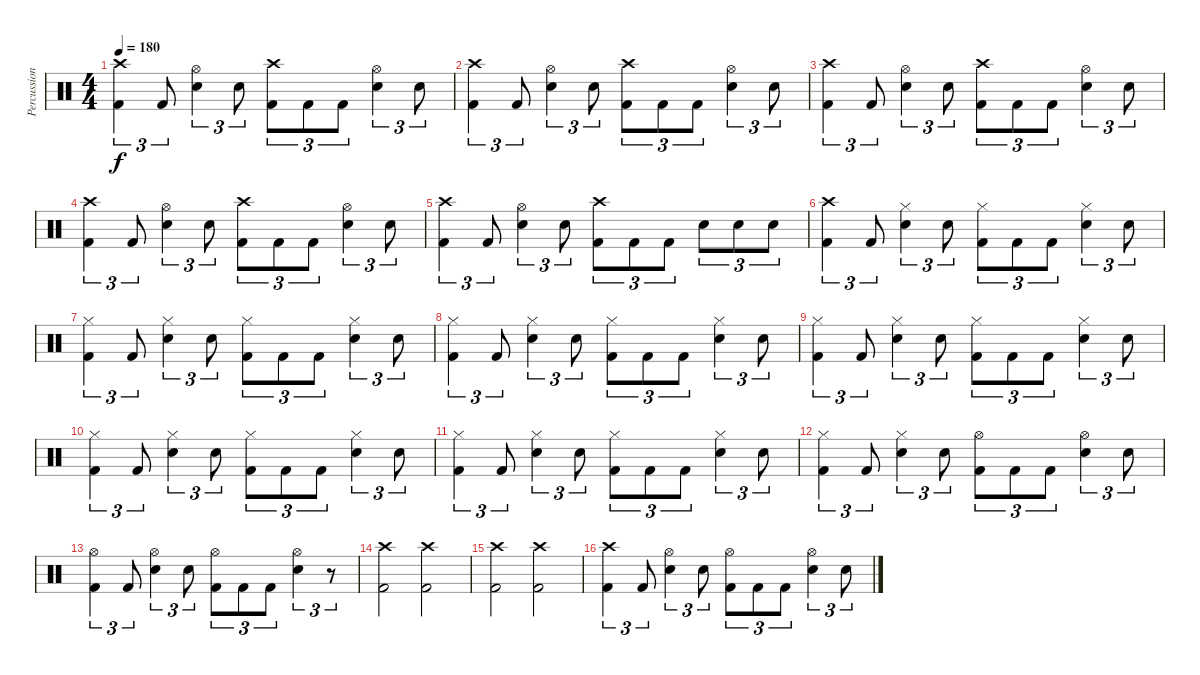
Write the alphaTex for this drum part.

\track ("Percussion" "Percussion") {instrument percussion}
\staff {score}
\articulation defaults
\ts (4 4)
\tempo 180
\clef neutral
\ks c
("Crash high (hit)" "Kick (hit) 2").4{tu (3 2) dy f} "Kick (hit) 2".8{tu (3 2)} ("Hi-Hat (open)" "Electric Snare (hit)").4{tu (3 2)} "Electric Snare (hit)".8{tu (3 2)} ("Crash high (hit)" "Kick (hit) 2").8{tu (3 2)} "Kick (hit) 2".8{tu (3 2)} "Kick (hit) 2".8{tu (3 2)} ("Hi-Hat (open)" "Electric Snare (hit)").4{tu (3 2)} "Electric Snare (hit)".8{tu (3 2)} |
("Crash high (hit)" "Kick (hit) 2").4{tu (3 2)} "Kick (hit) 2".8{tu (3 2)} ("Hi-Hat (open)" "Electric Snare (hit)").4{tu (3 2)} "Electric Snare (hit)".8{tu (3 2)} ("Crash high (hit)" "Kick (hit) 2").8{tu (3 2)} "Kick (hit) 2".8{tu (3 2)} "Kick (hit) 2".8{tu (3 2)} ("Hi-Hat (open)" "Electric Snare (hit)").4{tu (3 2)} "Electric Snare (hit)".8{tu (3 2)} |
("Crash high (hit)" "Kick (hit) 2").4{tu (3 2)} "Kick (hit) 2".8{tu (3 2)} ("Hi-Hat (open)" "Electric Snare (hit)").4{tu (3 2)} "Electric Snare (hit)".8{tu (3 2)} ("Crash high (hit)" "Kick (hit) 2").8{tu (3 2)} "Kick (hit) 2".8{tu (3 2)} "Kick (hit) 2".8{tu (3 2)} ("Hi-Hat (open)" "Electric Snare (hit)").4{tu (3 2)} "Electric Snare (hit)".8{tu (3 2)} |
("Crash high (hit)" "Kick (hit) 2").4{tu (3 2)} "Kick (hit) 2".8{tu (3 2)} ("Hi-Hat (open)" "Electric Snare (hit)").4{tu (3 2)} "Electric Snare (hit)".8{tu (3 2)} ("Crash high (hit)" "Kick (hit) 2").8{tu (3 2)} "Kick (hit) 2".8{tu (3 2)} "Kick (hit) 2".8{tu (3 2)} ("Hi-Hat (open)" "Electric Snare (hit)").4{tu (3 2)} "Electric Snare (hit)".8{tu (3 2)} |
("Crash high (hit)" "Kick (hit) 2").4{tu (3 2)} "Kick (hit) 2".8{tu (3 2)} ("Hi-Hat (open)" "Electric Snare (hit)").4{tu (3 2)} "Electric Snare (hit)".8{tu (3 2)} ("Crash high (hit)" "Kick (hit) 2").8{tu (3 2)} "Kick (hit) 2".8{tu (3 2)} "Kick (hit) 2".8{tu (3 2)} "Electric Snare (hit)".8{tu (3 2)} "Electric Snare (hit)".8{tu (3 2)} "Electric Snare (hit)".8{tu (3 2)} |
("Crash high (hit)" "Kick (hit) 2").4{tu (3 2)} "Kick (hit) 2".8{tu (3 2)} ("Hi-Hat (closed)" "Electric Snare (hit)").4{tu (3 2)} "Electric Snare (hit)".8{tu (3 2)} ("Hi-Hat (closed)" "Kick (hit) 2").8{tu (3 2)} "Kick (hit) 2".8{tu (3 2)} "Kick (hit) 2".8{tu (3 2)} ("Hi-Hat (closed)" "Electric Snare (hit)").4{tu (3 2)} "Electric Snare (hit)".8{tu (3 2)} |
("Hi-Hat (closed)" "Kick (hit) 2").4{tu (3 2)} "Kick (hit) 2".8{tu (3 2)} ("Hi-Hat (closed)" "Electric Snare (hit)").4{tu (3 2)} "Electric Snare (hit)".8{tu (3 2)} ("Hi-Hat (closed)" "Kick (hit) 2").8{tu (3 2)} "Kick (hit) 2".8{tu (3 2)} "Kick (hit) 2".8{tu (3 2)} ("Hi-Hat (closed)" "Electric Snare (hit)").4{tu (3 2)} "Electric Snare (hit)".8{tu (3 2)} |
("Hi-Hat (closed)" "Kick (hit) 2").4{tu (3 2)} "Kick (hit) 2".8{tu (3 2)} ("Hi-Hat (closed)" "Electric Snare (hit)").4{tu (3 2)} "Electric Snare (hit)".8{tu (3 2)} ("Hi-Hat (closed)" "Kick (hit) 2").8{tu (3 2)} "Kick (hit) 2".8{tu (3 2)} "Kick (hit) 2".8{tu (3 2)} ("Hi-Hat (closed)" "Electric Snare (hit)").4{tu (3 2)} "Electric Snare (hit)".8{tu (3 2)} |
("Hi-Hat (closed)" "Kick (hit) 2").4{tu (3 2)} "Kick (hit) 2".8{tu (3 2)} ("Hi-Hat (closed)" "Electric Snare (hit)").4{tu (3 2)} "Electric Snare (hit)".8{tu (3 2)} ("Hi-Hat (closed)" "Kick (hit) 2").8{tu (3 2)} "Kick (hit) 2".8{tu (3 2)} "Kick (hit) 2".8{tu (3 2)} ("Hi-Hat (closed)" "Electric Snare (hit)").4{tu (3 2)} "Electric Snare (hit)".8{tu (3 2)} |
("Hi-Hat (closed)" "Kick (hit) 2").4{tu (3 2)} "Kick (hit) 2".8{tu (3 2)} ("Hi-Hat (closed)" "Electric Snare (hit)").4{tu (3 2)} "Electric Snare (hit)".8{tu (3 2)} ("Hi-Hat (closed)" "Kick (hit) 2").8{tu (3 2)} "Kick (hit) 2".8{tu (3 2)} "Kick (hit) 2".8{tu (3 2)} ("Hi-Hat (closed)" "Electric Snare (hit)").4{tu (3 2)} "Electric Snare (hit)".8{tu (3 2)} |
("Hi-Hat (closed)" "Kick (hit) 2").4{tu (3 2)} "Kick (hit) 2".8{tu (3 2)} ("Hi-Hat (closed)" "Electric Snare (hit)").4{tu (3 2)} "Electric Snare (hit)".8{tu (3 2)} ("Hi-Hat (closed)" "Kick (hit) 2").8{tu (3 2)} "Kick (hit) 2".8{tu (3 2)} "Kick (hit) 2".8{tu (3 2)} ("Hi-Hat (closed)" "Electric Snare (hit)").4{tu (3 2)} "Electric Snare (hit)".8{tu (3 2)} |
("Hi-Hat (closed)" "Kick (hit) 2").4{tu (3 2)} "Kick (hit) 2".8{tu (3 2)} ("Hi-Hat (closed)" "Electric Snare (hit)").4{tu (3 2)} "Electric Snare (hit)".8{tu (3 2)} ("Hi-Hat (open)" "Kick (hit) 2").8{tu (3 2)} "Kick (hit) 2".8{tu (3 2)} "Kick (hit) 2".8{tu (3 2)} ("Hi-Hat (open)" "Electric Snare (hit)").4{tu (3 2)} "Electric Snare (hit)".8{tu (3 2)} |
("Hi-Hat (open)" "Kick (hit) 2").4{tu (3 2)} "Kick (hit) 2".8{tu (3 2)} ("Hi-Hat (open)" "Electric Snare (hit)").4{tu (3 2)} "Electric Snare (hit)".8{tu (3 2)} ("Hi-Hat (open)" "Kick (hit) 2").8{tu (3 2)} "Kick (hit) 2".8{tu (3 2)} "Kick (hit) 2".8{tu (3 2)} ("Hi-Hat (open)" "Electric Snare (hit)").4{tu (3 2)} r.8{tu (3 2)} |
("Crash high (hit)" "Kick (hit) 2").2 ("Crash high (hit)" "Kick (hit) 2").2 |
("Crash high (hit)" "Kick (hit) 2").2 ("Crash high (hit)" "Kick (hit) 2").2 |
("Crash high (hit)" "Kick (hit) 2").4{tu (3 2)} "Kick (hit) 2".8{tu (3 2)} ("Hi-Hat (open)" "Electric Snare (hit)").4{tu (3 2)} "Electric Snare (hit)".8{tu (3 2)} ("Hi-Hat (open)" "Kick (hit) 2").8{tu (3 2)} "Kick (hit) 2".8{tu (3 2)} "Kick (hit) 2".8{tu (3 2)} ("Hi-Hat (open)" "Electric Snare (hit)").4{tu (3 2)} "Electric Snare (hit)".8{tu (3 2)}
